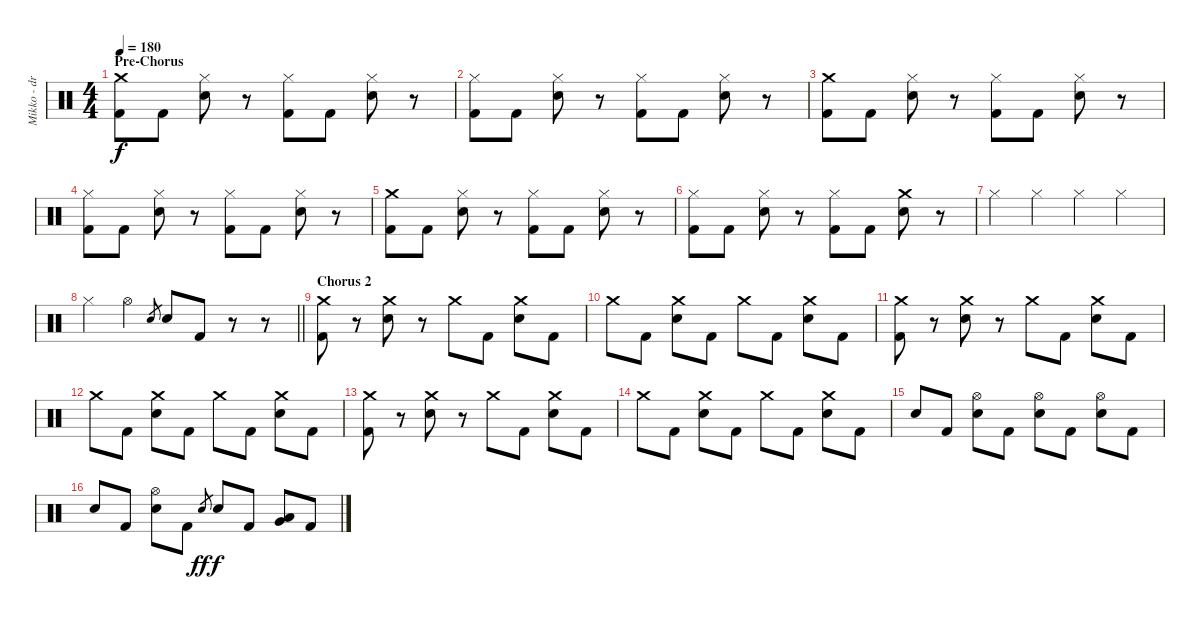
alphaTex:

\track ("Mikko - drums" "Mikko - dr") {instrument percussion}
\staff {score}
\articulation defaults
\ts (4 4)
\section ("" "Pre-Chorus")
\tempo 180
\clef neutral
\ks c
("Crash medium (hit)" "Kick (hit) 2").8{dy f} "Kick (hit) 2".8 ("Hi-Hat (closed)" "Snare (hit) 2").8 r.8 ("Hi-Hat (closed)" "Kick (hit) 2").8 "Kick (hit) 2".8 ("Hi-Hat (closed)" "Snare (hit) 2").8 r.8 |
("Hi-Hat (closed)" "Kick (hit) 2").8 "Kick (hit) 2".8 ("Hi-Hat (closed)" "Snare (hit) 2").8 r.8 ("Hi-Hat (closed)" "Kick (hit) 2").8 "Kick (hit) 2".8 ("Hi-Hat (closed)" "Snare (hit) 2").8 r.8 |
("Crash medium (hit)" "Kick (hit) 2").8 "Kick (hit) 2".8 ("Hi-Hat (closed)" "Snare (hit) 2").8 r.8 ("Hi-Hat (closed)" "Kick (hit) 2").8 "Kick (hit) 2".8 ("Hi-Hat (closed)" "Snare (hit) 2").8 r.8 |
("Hi-Hat (closed)" "Kick (hit) 2").8 "Kick (hit) 2".8 ("Hi-Hat (closed)" "Snare (hit) 2").8 r.8 ("Hi-Hat (closed)" "Kick (hit) 2").8 "Kick (hit) 2".8 ("Hi-Hat (closed)" "Snare (hit) 2").8 r.8 |
("Crash medium (hit)" "Kick (hit) 2").8 "Kick (hit) 2".8 ("Hi-Hat (closed)" "Snare (hit) 2").8 r.8 ("Hi-Hat (closed)" "Kick (hit) 2").8 "Kick (hit) 2".8 ("Hi-Hat (closed)" "Snare (hit) 2").8 r.8 |
("Hi-Hat (closed)" "Kick (hit) 2").8 "Kick (hit) 2".8 ("Hi-Hat (closed)" "Snare (hit) 2").8 r.8 ("Hi-Hat (closed)" "Kick (hit) 2").8 "Kick (hit) 2".8 ("Crash medium (hit)" "Snare (hit) 2").8 r.8 |
"Hi-Hat (closed)".4 "Hi-Hat (closed)".4 "Hi-Hat (closed)".4 "Hi-Hat (closed)".4 |
\barLineRight lightlight "Hi-Hat (closed)".4 "Hi-Hat (open)".4 "Snare (hit) 2".8{gr} "Snare (hit) 2".8 "Kick (hit) 2".8
r.8 r.8 |
\section ("" "Chorus 2")
("Crash medium (hit)" "Kick (hit) 2").8 r.8 ("Crash medium (hit)" "Snare (hit) 2").8 r.8 "Crash medium (hit)".8 "Kick (hit) 2".8 ("Crash medium (hit)" "Snare (hit) 2").8 "Kick (hit) 2".8 |
"Crash medium (hit)".8 "Kick (hit) 2".8 ("Crash medium (hit)" "Snare (hit) 2").8 "Kick (hit) 2".8 "Crash medium (hit)".8 "Kick (hit) 2".8 ("Crash medium (hit)" "Snare (hit) 2").8 "Kick (hit) 2".8 |
("Crash medium (hit)" "Kick (hit) 2").8 r.8 ("Crash medium (hit)" "Snare (hit) 2").8 r.8 "Crash medium (hit)".8 "Kick (hit) 2".8 ("Crash medium (hit)" "Snare (hit) 2").8 "Kick (hit) 2".8 |
"Crash medium (hit)".8 "Kick (hit) 2".8 ("Crash medium (hit)" "Snare (hit) 2").8 "Kick (hit) 2".8 "Crash medium (hit)".8 "Kick (hit) 2".8 ("Crash medium (hit)" "Snare (hit) 2").8 "Kick (hit) 2".8 |
("Crash medium (hit)" "Kick (hit) 2").8 r.8 ("Crash medium (hit)" "Snare (hit) 2").8 r.8 "Crash medium (hit)".8 "Kick (hit) 2".8 ("Crash medium (hit)" "Snare (hit) 2").8 "Kick (hit) 2".8 |
"Crash medium (hit)".8 "Kick (hit) 2".8 ("Crash medium (hit)" "Snare (hit) 2").8 "Kick (hit) 2".8 "Crash medium (hit)".8 "Kick (hit) 2".8 ("Crash medium (hit)" "Snare (hit) 2").8 "Kick (hit) 2".8 |
"Snare (hit) 2".8 "Kick (hit) 2".8 ("Hi-Hat (open)" "Snare (hit) 2").8 "Kick (hit) 2".8 ("Hi-Hat (open)" "Snare (hit) 2").8 "Kick (hit) 2".8 ("Hi-Hat (open)" "Snare (hit) 2").8 "Kick (hit) 2".8 |
"Snare (hit) 2".8 "Kick (hit) 2".8 ("Hi-Hat (open)" "Snare (hit) 2").8 "Kick (hit) 2".8 "Snare (hit) 2".8{gr dy ff} "Snare (hit) 2".8{dy f} "Kick (hit) 2".8 ("Low Tom (hit)" "Very Low Tom (hit)").8 "Kick (hit) 2".8
